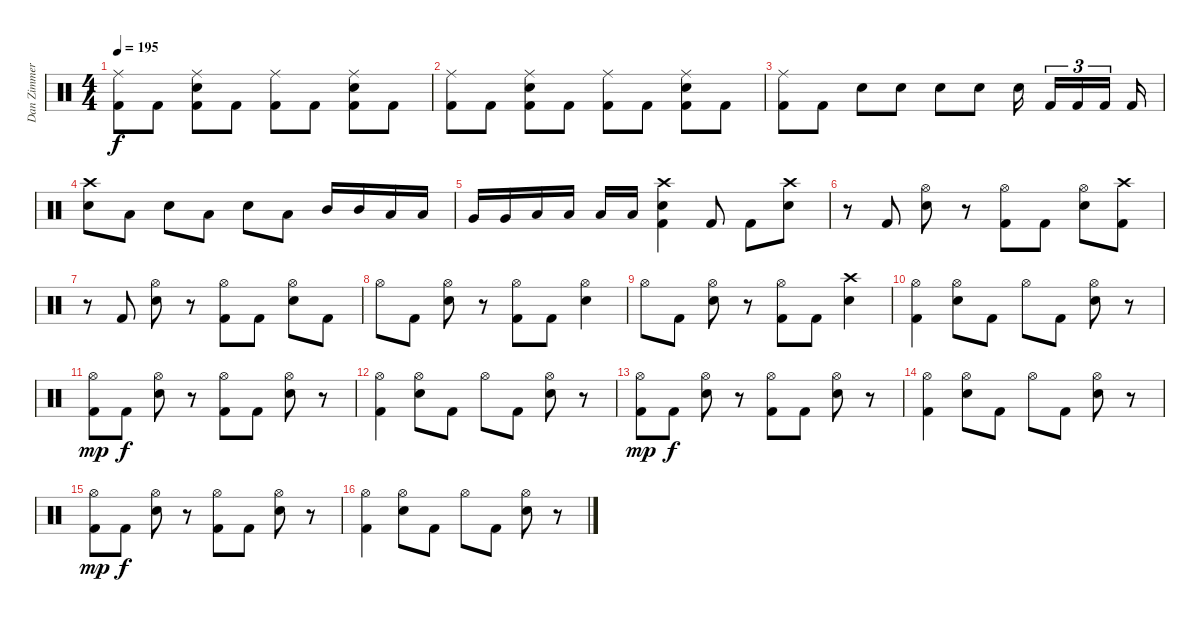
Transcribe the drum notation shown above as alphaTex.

\track ("Dan Zimmermann" "Dan Zimmer") {instrument percussion}
\staff {score}
\articulation defaults
\ts (4 4)
\tempo 195
\clef neutral
\ks c
("Ride (middle)" "Kick (hit) 2").8{dy f} "Kick (hit) 2".8 ("Ride (middle)" "Electric Snare (hit)" "Kick (hit) 2").8 "Kick (hit) 2".8 ("Ride (middle)" "Kick (hit) 2").8 "Kick (hit) 2".8 ("Ride (middle)" "Electric Snare (hit)" "Kick (hit) 2").8 "Kick (hit) 2".8 |
("Ride (middle)" "Kick (hit) 2").8 "Kick (hit) 2".8 ("Ride (middle)" "Electric Snare (hit)" "Kick (hit) 2").8 "Kick (hit) 2".8 ("Ride (middle)" "Kick (hit) 2").8 "Kick (hit) 2".8 ("Ride (middle)" "Electric Snare (hit)" "Kick (hit) 2").8 "Kick (hit) 2".8 |
("Ride (middle)" "Kick (hit) 2").8 "Kick (hit) 2".8 "Electric Snare (hit)".8 "Electric Snare (hit)".8 "Electric Snare (hit)".8 "Electric Snare (hit)".8 "Electric Snare (hit)".16 "Kick (hit) 2".16{tu (3 2)} "Kick (hit) 2".16{tu (3 2)} "Kick (hit) 2".16{tu (3 2)} "Kick (hit) 2".16 |
("Crash high (hit)" "Electric Snare (hit)").8 "Low Tom (hit)".8 "Electric Snare (hit)".8 "Low Tom (hit)".8 "Electric Snare (hit)".8 "Low Tom (hit)".8 "Mid Tom (hit)".16 "Mid Tom (hit)".16 "Low Tom (hit)".16 "Low Tom (hit)".16 |
"Very Low Tom (hit)".16 "Very Low Tom (hit)".16 "Low Floor Tom (hit)".16 "Low Tom (hit)".16 "Low Tom (hit)".16 "Low Floor Tom (hit)".16 ("Crash high (hit)" "Electric Snare (hit)" "Kick (hit) 2").4 "Kick (hit) 2".8 "Kick (hit) 2".8 ("Crash high (hit)" "Electric Snare (hit)").8 |
r.8 "Kick (hit) 2".8 ("Hi-Hat (open)" "Electric Snare (hit)").8 r.8 ("Hi-Hat (open)" "Kick (hit) 2").8 "Kick (hit) 2".8 ("Hi-Hat (open)" "Electric Snare (hit)").8 ("Crash high (hit)" "Kick (hit) 2").8 |
r.8 "Kick (hit) 2".8 ("Hi-Hat (open)" "Electric Snare (hit)").8 r.8 ("Hi-Hat (open)" "Kick (hit) 2").8 "Kick (hit) 2".8 ("Hi-Hat (open)" "Electric Snare (hit)").8 "Kick (hit) 2".8 |
"Hi-Hat (open)".8 "Kick (hit) 2".8 ("Hi-Hat (open)" "Electric Snare (hit)").8 r.8 ("Hi-Hat (open)" "Kick (hit) 2").8 "Kick (hit) 2".8 ("Hi-Hat (open)" "Electric Snare (hit)").4 |
"Hi-Hat (open)".8 "Kick (hit) 2".8 ("Hi-Hat (open)" "Electric Snare (hit)").8 r.8 ("Hi-Hat (open)" "Kick (hit) 2").8 "Kick (hit) 2".8 ("Crash high (hit)" "Electric Snare (hit)").4 |
("Hi-Hat (open)" "Kick (hit) 2").4 ("Hi-Hat (open)" "Electric Snare (hit)").8 "Kick (hit) 2".8 "Hi-Hat (open)".8 "Kick (hit) 2".8 ("Hi-Hat (open)" "Electric Snare (hit)").8 r.8 |
("Hi-Hat (open)" "Kick (hit) 2").8{dy mp} "Kick (hit) 2".8{dy f} ("Hi-Hat (open)" "Electric Snare (hit)").8 r.8 ("Hi-Hat (open)" "Kick (hit) 2").8 "Kick (hit) 2".8 ("Hi-Hat (open)" "Electric Snare (hit)").8 r.8 |
("Hi-Hat (open)" "Kick (hit) 2").4 ("Hi-Hat (open)" "Electric Snare (hit)").8 "Kick (hit) 2".8 "Hi-Hat (open)".8 "Kick (hit) 2".8 ("Hi-Hat (open)" "Electric Snare (hit)").8 r.8 |
("Hi-Hat (open)" "Kick (hit) 2").8{dy mp} "Kick (hit) 2".8{dy f} ("Hi-Hat (open)" "Electric Snare (hit)").8 r.8 ("Hi-Hat (open)" "Kick (hit) 2").8 "Kick (hit) 2".8 ("Hi-Hat (open)" "Electric Snare (hit)").8 r.8 |
("Hi-Hat (open)" "Kick (hit) 2").4 ("Hi-Hat (open)" "Electric Snare (hit)").8 "Kick (hit) 2".8 "Hi-Hat (open)".8 "Kick (hit) 2".8 ("Hi-Hat (open)" "Electric Snare (hit)").8 r.8 |
("Hi-Hat (open)" "Kick (hit) 2").8{dy mp} "Kick (hit) 2".8{dy f} ("Hi-Hat (open)" "Electric Snare (hit)").8 r.8 ("Hi-Hat (open)" "Kick (hit) 2").8 "Kick (hit) 2".8 ("Hi-Hat (open)" "Electric Snare (hit)").8 r.8 |
("Hi-Hat (open)" "Kick (hit) 2").4 ("Hi-Hat (open)" "Electric Snare (hit)").8 "Kick (hit) 2".8 "Hi-Hat (open)".8 "Kick (hit) 2".8 ("Hi-Hat (open)" "Electric Snare (hit)").8 r.8
